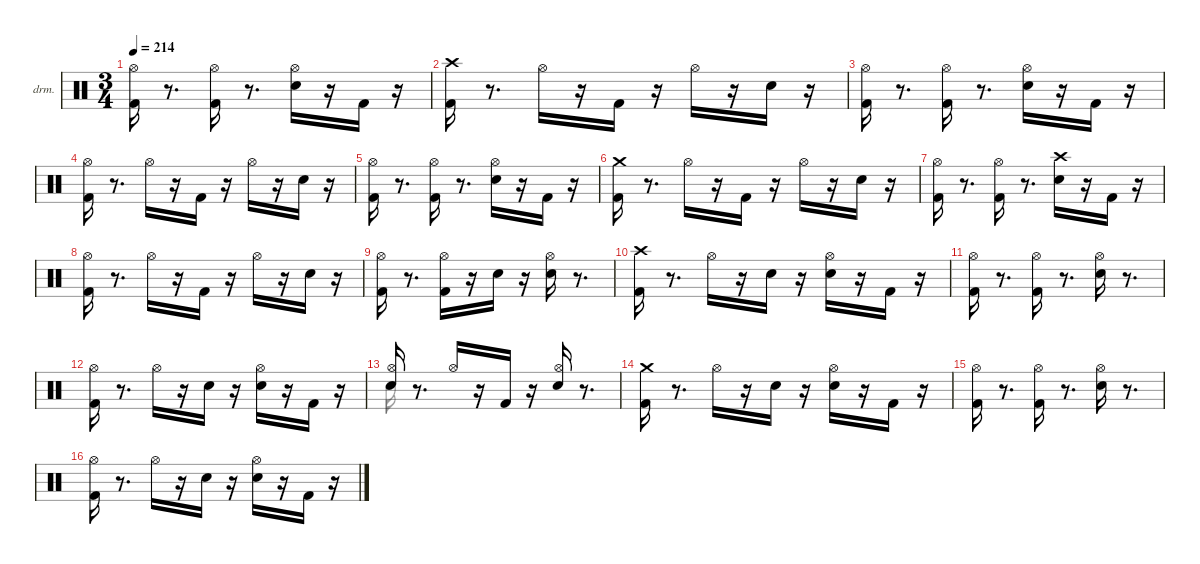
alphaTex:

\hideDynamics
\bracketExtendMode nobrackets
\firstSystemTrackNameOrientation horizontal
\otherSystemsTrackNameOrientation horizontal
\track ("EZdrummer 3" "drm.") {instrument percussion}
\staff {score}
\articulation defaults
\voice
\ts (3 4)
\tempo 214
\clef neutral
\ks aminor
("Kick (hit) 2" "Hi-Hat (open)"{acc #}).16{dy fff beam Down} r.8{d beam Down} ("Kick (hit) 2" "Hi-Hat (open)"{acc #}).16{dy mf beam Down} r.8{d beam Down} ("Snare (hit) 2" "Hi-Hat (open)"{acc #}).16{dy f beam Down} r.16{beam Down} "Kick (hit) 2".16{dy mp beam Up} r.16{beam Up} |
("Kick (hit) 2" "Crash high (hit)"{acc #}).16{dy fff beam Down} r.8{d beam Down} "Hi-Hat (open)"{acc #}.16{dy mf beam Down} r.16{beam Down} "Kick (hit) 2".16{dy ff beam Up} r.16{beam Up} "Hi-Hat (open)"{acc #}.16{dy f beam Down} r.16{beam Down} "Snare (hit) 2".16{dy ff beam Down} r.16{beam Down} |
("Kick (hit) 2" "Hi-Hat (open)"{acc #}).16{dy fff beam Down} r.8{d beam Down} ("Kick (hit) 2" "Hi-Hat (open)"{acc #}).16{dy f beam Down} r.8{d beam Down} ("Snare (hit) 2" "Hi-Hat (open)"{acc #}).16{beam Down} r.16{beam Down} "Kick (hit) 2".16{dy mp beam Up} r.16{beam Up} |
("Kick (hit) 2" "Hi-Hat (open)"{acc #}).16{dy ff beam Down} r.8{d beam Down} "Hi-Hat (open)"{acc #}.16{dy mf beam Down} r.16{beam Down} "Kick (hit) 2".16{dy ff beam Up} r.16{beam Up} "Hi-Hat (open)"{acc #}.16{dy f beam Down} r.16{beam Down} "Snare (hit) 2".16{dy ff beam Down} r.16{beam Down} |
("Kick (hit) 2" "Hi-Hat (open)"{acc #}).16{dy fff beam Down} r.8{d beam Down} ("Kick (hit) 2" "Hi-Hat (open)"{acc #}).16{dy ff beam Down} r.8{d beam Down} ("Snare (hit) 2" "Hi-Hat (open)"{acc #}).16{dy f beam Down} r.16{beam Down} "Kick (hit) 2".16{dy mp beam Up} r.16{beam Up} |
("Kick (hit) 2" "Crash medium (hit)").16{dy ff beam Down} r.8{d beam Down} "Hi-Hat (open)"{acc #}.16{dy mf beam Down} r.16{beam Down} "Kick (hit) 2".16{dy f beam Up} r.16{beam Up} "Hi-Hat (open)"{acc #}.16{beam Down} r.16{beam Down} "Snare (hit) 2".16{dy ff beam Down} r.16{beam Down} |
("Kick (hit) 2" "Hi-Hat (open)"{acc #}).16{dy fff beam Down} r.8{d beam Down} ("Kick (hit) 2" "Hi-Hat (open)"{acc #}).16{dy f beam Down} r.8{d beam Down} ("Snare (hit) 2" "Crash high (hit)"{acc #}).16{dy ff beam Down} r.16{beam Down} "Kick (hit) 2".16{dy mf beam Up} r.16{beam Up} |
("Kick (hit) 2" "Hi-Hat (open)"{acc #}).16{dy fff beam Down} r.8{d beam Down} "Hi-Hat (open)"{acc #}.16{dy mf beam Down} r.16{beam Down} "Kick (hit) 2".16{dy ff beam Up} r.16{beam Up} "Hi-Hat (open)"{acc #}.16{beam Down} r.16{beam Down} "Snare (hit) 2".16{beam Down} r.16{beam Down} |
("Kick (hit) 2" "Hi-Hat (open)"{acc #}).16{beam Down} r.8{d beam Down} ("Kick (hit) 2" "Hi-Hat (open)"{acc #}).16{beam Down} r.16{beam Down} "Snare (hit) 2".16{dy f beam Down} r.16{beam Down} ("Snare (hit) 2" "Hi-Hat (open)"{acc #}).16{dy fff beam Down} r.8{d beam Down} |
("Kick (hit) 2" "Crash high (hit)"{acc #}).16{beam Down} r.8{d beam Down} "Hi-Hat (open)"{acc #}.16{dy mf beam Down} r.16{beam Down} "Snare (hit) 2".16{dy f beam Down} r.16{beam Down} ("Snare (hit) 2" "Hi-Hat (open)"{acc #}).16{dy p beam Down} r.16{beam Down} "Kick (hit) 2".16{dy mp beam Up} r.16{beam Up} |
("Kick (hit) 2" "Hi-Hat (open)"{acc #}).16{dy f beam Down} r.8{d beam Down} ("Kick (hit) 2" "Hi-Hat (open)"{acc #}).16{dy mf beam Down} r.8{d beam Down} ("Snare (hit) 2" "Hi-Hat (open)"{acc #}).16{dy mp beam Down} r.8{d beam Down} |
("Kick (hit) 2" "Hi-Hat (open)"{acc #}).16{dy mf beam Down} r.8{d beam Down} "Hi-Hat (open)"{acc #}.16{dy mp beam Down} r.16{beam Down} "Snare (hit) 2".16{dy f beam Down} r.16{beam Down} ("Snare (hit) 2" "Hi-Hat (open)"{acc #}).16{beam Down} r.16{beam Down} "Kick (hit) 2".16{dy mf beam Up} r.16{beam Up} |
("Snare (hit) 2" "Hi-Hat (open)"{acc #}).16{dy pp beam Up} r.8{d beam Up} "Hi-Hat (open)"{acc #}.16{dy f beam Up} r.16{beam Up} "Kick (hit) 2".16{dy mp beam Up} r.16{beam Up} ("Snare (hit) 2" "Hi-Hat (open)"{acc #}).16{dy ff beam Up} r.8{d beam Up} |
("Kick (hit) 2" "Crash medium (hit)").16{beam Down} r.8{d beam Down} "Hi-Hat (open)"{acc #}.16{dy mf beam Down} r.16{beam Down} "Snare (hit) 2".16{dy f beam Down} r.16{beam Down} ("Snare (hit) 2" "Hi-Hat (open)"{acc #}).16{dy p beam Down} r.16{beam Down} "Kick (hit) 2".16{dy mp beam Up} r.16{beam Up} |
("Kick (hit) 2" "Hi-Hat (open)"{acc #}).16{dy f beam Down} r.8{d beam Down} ("Kick (hit) 2" "Hi-Hat (open)"{acc #}).16{dy mf beam Down} r.8{d beam Down} ("Snare (hit) 2" "Hi-Hat (open)"{acc #}).16{dy f beam Down} r.8{d beam Down} |
("Kick (hit) 2" "Hi-Hat (open)"{acc #}).16{dy mf beam Down} r.8{d beam Down} "Hi-Hat (open)"{acc #}.16{dy mp beam Down} r.16{beam Down} "Snare (hit) 2".16{dy f beam Down} r.16{beam Down} ("Snare (hit) 2" "Hi-Hat (open)"{acc #}).16{dy p beam Down} r.16{beam Down} "Kick (hit) 2".16{dy mf beam Up} r.16{beam Up}
\voice
\clef neutral
\ottava regular
\simile none
\ks aminor
|
|
|
|
|
|
|
|
|
|
|
|
"Snare (hit) 2".16{beam Down} |
|
|
